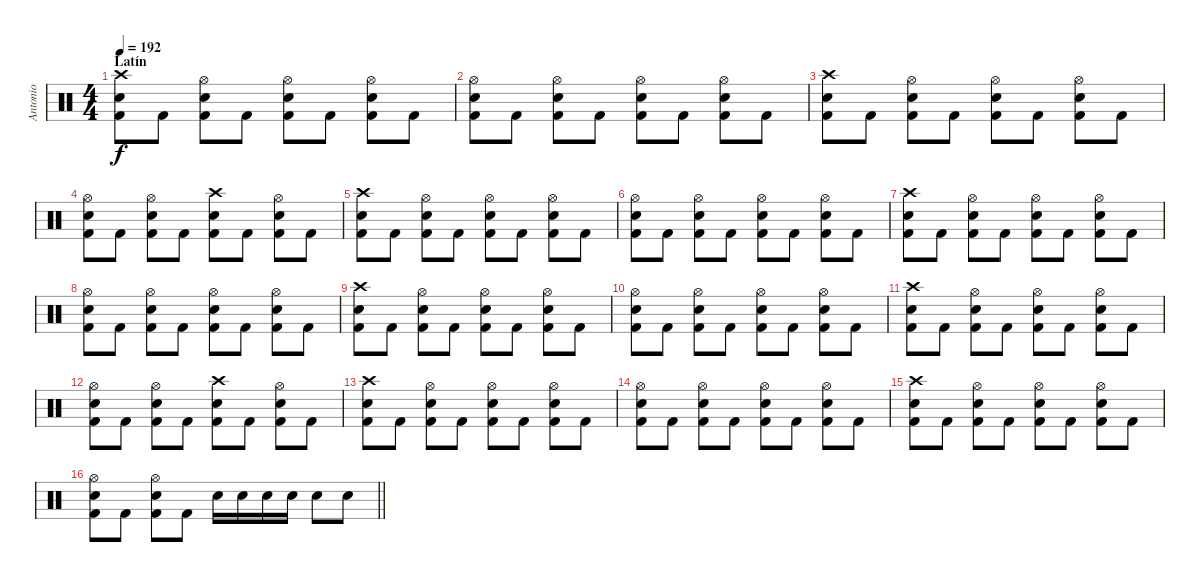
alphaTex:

\track ("Antonio" "Antonio") {instrument percussion}
\staff {score}
\articulation defaults
\ts (4 4)
\section ("" "Latín")
\tempo 192
\clef neutral
\ks c
("Crash high (hit)" "Electric Snare (hit)" "Kick (hit) 2").8{dy f} "Kick (hit) 2".8 ("Hi-Hat (open)" "Electric Snare (hit)" "Kick (hit) 2").8 "Kick (hit) 2".8 ("Hi-Hat (open)" "Electric Snare (hit)" "Kick (hit) 2").8 "Kick (hit) 2".8 ("Hi-Hat (open)" "Electric Snare (hit)" "Kick (hit) 2").8 "Kick (hit) 2".8 |
("Hi-Hat (open)" "Electric Snare (hit)" "Kick (hit) 2").8 "Kick (hit) 2".8 ("Hi-Hat (open)" "Electric Snare (hit)" "Kick (hit) 2").8 "Kick (hit) 2".8 ("Hi-Hat (open)" "Electric Snare (hit)" "Kick (hit) 2").8 "Kick (hit) 2".8 ("Hi-Hat (open)" "Electric Snare (hit)" "Kick (hit) 2").8 "Kick (hit) 2".8 |
("Crash high (hit)" "Electric Snare (hit)" "Kick (hit) 2").8 "Kick (hit) 2".8 ("Hi-Hat (open)" "Electric Snare (hit)" "Kick (hit) 2").8 "Kick (hit) 2".8 ("Hi-Hat (open)" "Electric Snare (hit)" "Kick (hit) 2").8 "Kick (hit) 2".8 ("Hi-Hat (open)" "Electric Snare (hit)" "Kick (hit) 2").8 "Kick (hit) 2".8 |
("Hi-Hat (open)" "Electric Snare (hit)" "Kick (hit) 2").8 "Kick (hit) 2".8 ("Hi-Hat (open)" "Electric Snare (hit)" "Kick (hit) 2").8 "Kick (hit) 2".8 ("Crash high (hit)" "Electric Snare (hit)" "Kick (hit) 2").8 "Kick (hit) 2".8 ("Hi-Hat (open)" "Electric Snare (hit)" "Kick (hit) 2").8 "Kick (hit) 2".8 |
("Crash high (hit)" "Electric Snare (hit)" "Kick (hit) 2").8 "Kick (hit) 2".8 ("Hi-Hat (open)" "Electric Snare (hit)" "Kick (hit) 2").8 "Kick (hit) 2".8 ("Hi-Hat (open)" "Electric Snare (hit)" "Kick (hit) 2").8 "Kick (hit) 2".8 ("Hi-Hat (open)" "Electric Snare (hit)" "Kick (hit) 2").8 "Kick (hit) 2".8 |
("Hi-Hat (open)" "Electric Snare (hit)" "Kick (hit) 2").8 "Kick (hit) 2".8 ("Hi-Hat (open)" "Electric Snare (hit)" "Kick (hit) 2").8 "Kick (hit) 2".8 ("Hi-Hat (open)" "Electric Snare (hit)" "Kick (hit) 2").8 "Kick (hit) 2".8 ("Hi-Hat (open)" "Electric Snare (hit)" "Kick (hit) 2").8 "Kick (hit) 2".8 |
("Crash high (hit)" "Electric Snare (hit)" "Kick (hit) 2").8 "Kick (hit) 2".8 ("Hi-Hat (open)" "Electric Snare (hit)" "Kick (hit) 2").8 "Kick (hit) 2".8 ("Hi-Hat (open)" "Electric Snare (hit)" "Kick (hit) 2").8 "Kick (hit) 2".8 ("Hi-Hat (open)" "Electric Snare (hit)" "Kick (hit) 2").8 "Kick (hit) 2".8 |
("Hi-Hat (open)" "Electric Snare (hit)" "Kick (hit) 2").8 "Kick (hit) 2".8 ("Hi-Hat (open)" "Electric Snare (hit)" "Kick (hit) 2").8 "Kick (hit) 2".8 ("Hi-Hat (open)" "Electric Snare (hit)" "Kick (hit) 2").8 "Kick (hit) 2".8 ("Hi-Hat (open)" "Electric Snare (hit)" "Kick (hit) 2").8 "Kick (hit) 2".8 |
("Crash high (hit)" "Electric Snare (hit)" "Kick (hit) 2").8 "Kick (hit) 2".8 ("Hi-Hat (open)" "Electric Snare (hit)" "Kick (hit) 2").8 "Kick (hit) 2".8 ("Hi-Hat (open)" "Electric Snare (hit)" "Kick (hit) 2").8 "Kick (hit) 2".8 ("Hi-Hat (open)" "Electric Snare (hit)" "Kick (hit) 2").8 "Kick (hit) 2".8 |
("Hi-Hat (open)" "Electric Snare (hit)" "Kick (hit) 2").8 "Kick (hit) 2".8 ("Hi-Hat (open)" "Electric Snare (hit)" "Kick (hit) 2").8 "Kick (hit) 2".8 ("Hi-Hat (open)" "Electric Snare (hit)" "Kick (hit) 2").8 "Kick (hit) 2".8 ("Hi-Hat (open)" "Electric Snare (hit)" "Kick (hit) 2").8 "Kick (hit) 2".8 |
("Crash high (hit)" "Electric Snare (hit)" "Kick (hit) 2").8 "Kick (hit) 2".8 ("Hi-Hat (open)" "Electric Snare (hit)" "Kick (hit) 2").8 "Kick (hit) 2".8 ("Hi-Hat (open)" "Electric Snare (hit)" "Kick (hit) 2").8 "Kick (hit) 2".8 ("Hi-Hat (open)" "Electric Snare (hit)" "Kick (hit) 2").8 "Kick (hit) 2".8 |
("Hi-Hat (open)" "Electric Snare (hit)" "Kick (hit) 2").8 "Kick (hit) 2".8 ("Hi-Hat (open)" "Electric Snare (hit)" "Kick (hit) 2").8 "Kick (hit) 2".8 ("Crash high (hit)" "Electric Snare (hit)" "Kick (hit) 2").8 "Kick (hit) 2".8 ("Hi-Hat (open)" "Electric Snare (hit)" "Kick (hit) 2").8 "Kick (hit) 2".8 |
("Crash high (hit)" "Electric Snare (hit)" "Kick (hit) 2").8 "Kick (hit) 2".8 ("Hi-Hat (open)" "Electric Snare (hit)" "Kick (hit) 2").8 "Kick (hit) 2".8 ("Hi-Hat (open)" "Electric Snare (hit)" "Kick (hit) 2").8 "Kick (hit) 2".8 ("Hi-Hat (open)" "Electric Snare (hit)" "Kick (hit) 2").8 "Kick (hit) 2".8 |
("Hi-Hat (open)" "Electric Snare (hit)" "Kick (hit) 2").8 "Kick (hit) 2".8 ("Hi-Hat (open)" "Electric Snare (hit)" "Kick (hit) 2").8 "Kick (hit) 2".8 ("Hi-Hat (open)" "Electric Snare (hit)" "Kick (hit) 2").8 "Kick (hit) 2".8 ("Hi-Hat (open)" "Electric Snare (hit)" "Kick (hit) 2").8 "Kick (hit) 2".8 |
("Crash high (hit)" "Electric Snare (hit)" "Kick (hit) 2").8 "Kick (hit) 2".8 ("Hi-Hat (open)" "Electric Snare (hit)" "Kick (hit) 2").8 "Kick (hit) 2".8 ("Hi-Hat (open)" "Electric Snare (hit)" "Kick (hit) 2").8 "Kick (hit) 2".8 ("Hi-Hat (open)" "Electric Snare (hit)" "Kick (hit) 2").8 "Kick (hit) 2".8 |
\barLineRight lightlight
("Hi-Hat (open)" "Electric Snare (hit)" "Kick (hit) 2").8 "Kick (hit) 2".8 ("Hi-Hat (open)" "Electric Snare (hit)" "Kick (hit) 2").8 "Kick (hit) 2".8 "Electric Snare (hit)".16 "Electric Snare (hit)".16 "Electric Snare (hit)".16 "Electric Snare (hit)".16 "Electric Snare (hit)".8 "Electric Snare (hit)".8
